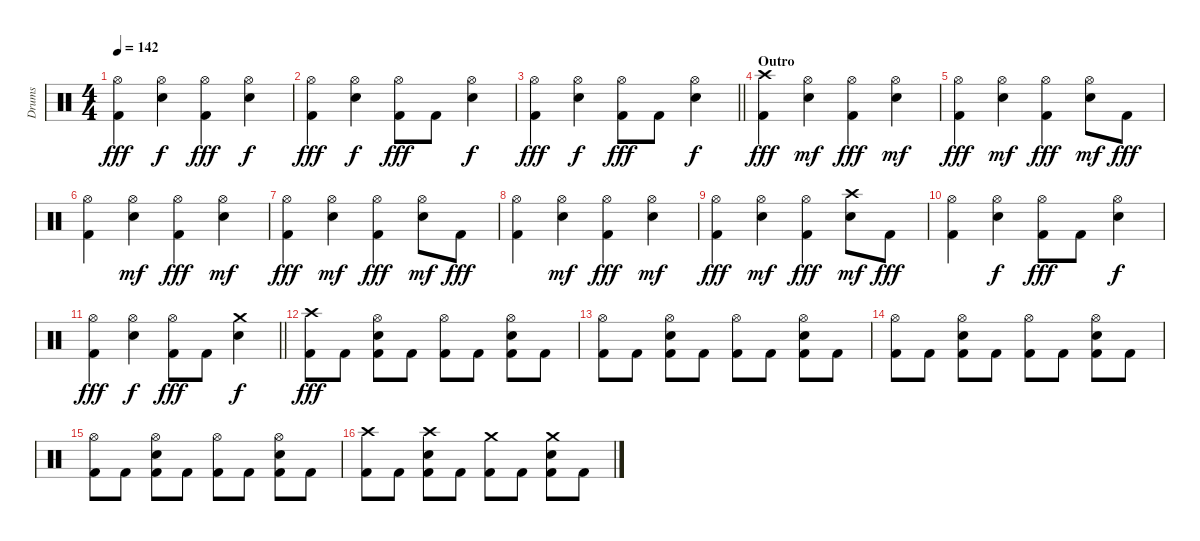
\track ("Drums" "Drums") {instrument percussion}
\staff {score}
\articulation defaults
\ts (4 4)
\tempo 142
\clef neutral
\ks c
("Hi-Hat (open)" "Kick (hit) 2").4{dy fff} ("Hi-Hat (open)" "Snare (hit) 2").4{dy f} ("Hi-Hat (open)" "Kick (hit) 2").4{dy fff} ("Hi-Hat (open)" "Snare (hit) 2").4{dy f} |
("Hi-Hat (open)" "Kick (hit) 2").4{dy fff} ("Hi-Hat (open)" "Snare (hit) 2").4{dy f} ("Hi-Hat (open)" "Kick (hit) 2").8{dy fff} "Kick (hit) 2".8 ("Hi-Hat (open)" "Snare (hit) 2").4{dy f} |
\barLineRight lightlight
("Hi-Hat (open)" "Kick (hit) 2").4{dy fff} ("Hi-Hat (open)" "Snare (hit) 2").4{dy f} ("Hi-Hat (open)" "Kick (hit) 2").8{dy fff} "Kick (hit) 2".8 ("Hi-Hat (open)" "Snare (hit) 2").4{dy f} |
\section ("" "Outro")
("Crash high (hit)" "Kick (hit) 2").4{dy fff} ("Hi-Hat (open)" "Snare (hit) 2").4{dy mf} ("Hi-Hat (open)" "Kick (hit) 2").4{dy fff} ("Hi-Hat (open)" "Snare (hit) 2").4{dy mf} |
("Hi-Hat (open)" "Kick (hit) 2").4{dy fff} ("Hi-Hat (open)" "Snare (hit) 2").4{dy mf} ("Hi-Hat (open)" "Kick (hit) 2").4{dy fff} ("Hi-Hat (open)" "Snare (hit) 2").8{dy mf} "Kick (hit) 2".8{dy fff} |
("Hi-Hat (open)" "Kick (hit) 2").4 ("Hi-Hat (open)" "Snare (hit) 2").4{dy mf} ("Hi-Hat (open)" "Kick (hit) 2").4{dy fff} ("Hi-Hat (open)" "Snare (hit) 2").4{dy mf} |
("Hi-Hat (open)" "Kick (hit) 2").4{dy fff} ("Hi-Hat (open)" "Snare (hit) 2").4{dy mf} ("Hi-Hat (open)" "Kick (hit) 2").4{dy fff} ("Hi-Hat (open)" "Snare (hit) 2").8{dy mf} "Kick (hit) 2".8{dy fff} |
("Hi-Hat (open)" "Kick (hit) 2").4 ("Hi-Hat (open)" "Snare (hit) 2").4{dy mf} ("Hi-Hat (open)" "Kick (hit) 2").4{dy fff} ("Hi-Hat (open)" "Snare (hit) 2").4{dy mf} |
("Hi-Hat (open)" "Kick (hit) 2").4{dy fff} ("Hi-Hat (open)" "Snare (hit) 2").4{dy mf} ("Hi-Hat (open)" "Kick (hit) 2").4{dy fff} ("Crash high (hit)" "Snare (hit) 2").8{dy mf} "Kick (hit) 2".8{dy fff} |
("Hi-Hat (open)" "Kick (hit) 2").4 ("Hi-Hat (open)" "Snare (hit) 2").4{dy f} ("Hi-Hat (open)" "Kick (hit) 2").8{dy fff} "Kick (hit) 2".8 ("Hi-Hat (open)" "Snare (hit) 2").4{dy f} |
\barLineRight lightlight
("Hi-Hat (open)" "Kick (hit) 2").4{dy fff} ("Hi-Hat (open)" "Snare (hit) 2").4{dy f} ("Hi-Hat (open)" "Kick (hit) 2").8{dy fff} "Kick (hit) 2".8 ("Crash medium (hit)" "Snare (hit) 2").4{dy f} |
("Crash high (hit)" "Kick (hit) 2").8{dy fff} "Kick (hit) 2".8 ("Hi-Hat (open)" "Snare (hit) 2" "Kick (hit) 2").8 "Kick (hit) 2".8 ("Hi-Hat (open)" "Kick (hit) 2").8 "Kick (hit) 2".8 ("Hi-Hat (open)" "Snare (hit) 2" "Kick (hit) 2").8 "Kick (hit) 2".8 |
("Hi-Hat (open)" "Kick (hit) 2").8 "Kick (hit) 2".8 ("Hi-Hat (open)" "Snare (hit) 2" "Kick (hit) 2").8 "Kick (hit) 2".8 ("Hi-Hat (open)" "Kick (hit) 2").8 "Kick (hit) 2".8 ("Hi-Hat (open)" "Snare (hit) 2" "Kick (hit) 2").8 "Kick (hit) 2".8 |
("Hi-Hat (open)" "Kick (hit) 2").8 "Kick (hit) 2".8 ("Hi-Hat (open)" "Snare (hit) 2" "Kick (hit) 2").8 "Kick (hit) 2".8 ("Hi-Hat (open)" "Kick (hit) 2").8 "Kick (hit) 2".8 ("Hi-Hat (open)" "Snare (hit) 2" "Kick (hit) 2").8 "Kick (hit) 2".8 |
("Hi-Hat (open)" "Kick (hit) 2").8 "Kick (hit) 2".8 ("Hi-Hat (open)" "Snare (hit) 2" "Kick (hit) 2").8 "Kick (hit) 2".8 ("Hi-Hat (open)" "Kick (hit) 2").8 "Kick (hit) 2".8 ("Hi-Hat (open)" "Snare (hit) 2" "Kick (hit) 2").8 "Kick (hit) 2".8 |
("Crash high (hit)" "Kick (hit) 2").8 "Kick (hit) 2".8 ("Crash high (hit)" "Snare (hit) 2" "Kick (hit) 2").8 "Kick (hit) 2".8 ("Crash medium (hit)" "Kick (hit) 2").8 "Kick (hit) 2".8 ("Crash medium (hit)" "Snare (hit) 2" "Kick (hit) 2").8 "Kick (hit) 2".8
